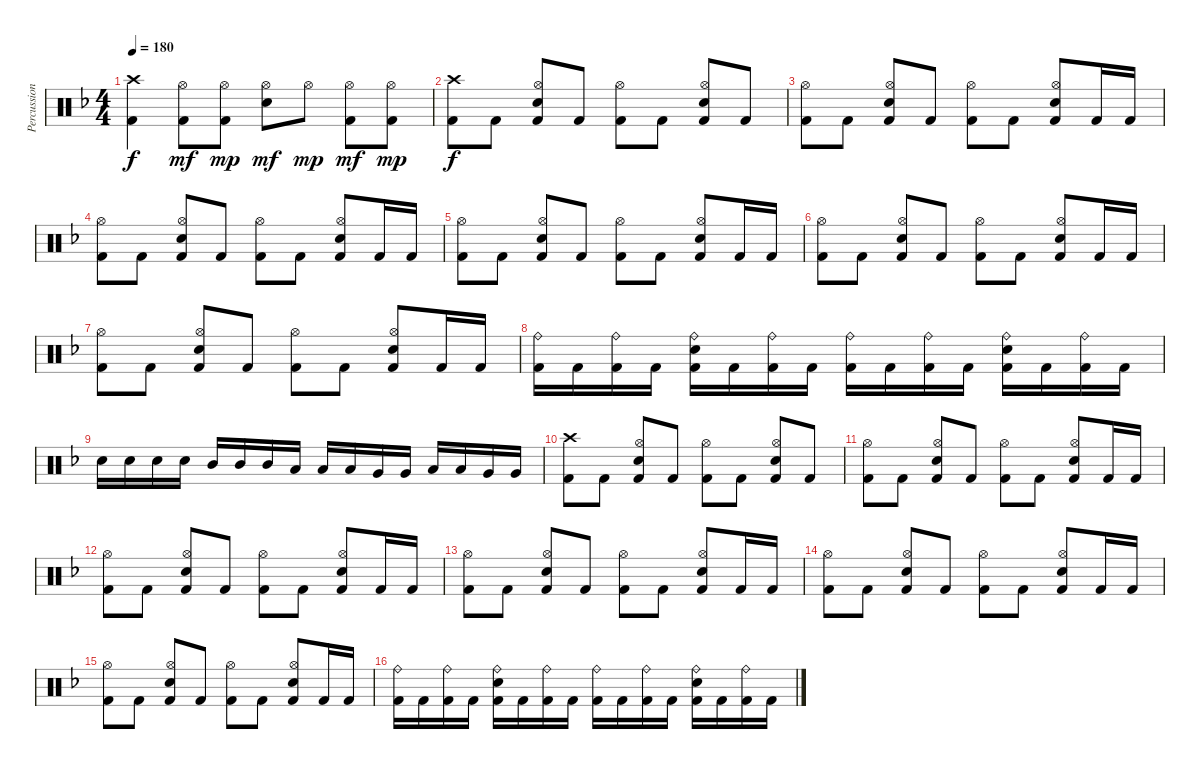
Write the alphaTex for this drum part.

\track ("Percussion" "Percussion") {instrument percussion}
\staff {score}
\articulation defaults
\ts (4 4)
\tempo 180
\clef neutral
\ks dminor
("Crash high (hit)" "Kick (hit) 2").4{dy f} ("Hi-Hat (open)" "Kick (hit) 2").8{dy mf} ("Hi-Hat (open)" "Kick (hit) 2").8{dy mp} ("Hi-Hat (open)" "Snare (hit) 2").8{dy mf} "Hi-Hat (open)".8{dy mp} ("Hi-Hat (open)" "Kick (hit) 2").8{dy mf} ("Hi-Hat (open)" "Kick (hit) 2").8{dy mp} |
("Crash high (hit)" "Kick (hit) 2").8{dy f} "Kick (hit) 2".8 ("Hi-Hat (open)" "Snare (hit) 2" "Kick (hit) 2").8 "Kick (hit) 2".8 ("Hi-Hat (open)" "Kick (hit) 2").8 "Kick (hit) 2".8 ("Hi-Hat (open)" "Snare (hit) 2" "Kick (hit) 2").8 "Kick (hit) 2".8 |
("Hi-Hat (open)" "Kick (hit) 2").8 "Kick (hit) 2".8 ("Hi-Hat (open)" "Snare (hit) 2" "Kick (hit) 2").8 "Kick (hit) 2".8 ("Hi-Hat (open)" "Kick (hit) 2").8 "Kick (hit) 2".8 ("Hi-Hat (open)" "Snare (hit) 2" "Kick (hit) 2").8 "Kick (hit) 2".16 "Kick (hit) 2".16 |
("Hi-Hat (open)" "Kick (hit) 2").8 "Kick (hit) 2".8 ("Hi-Hat (open)" "Snare (hit) 2" "Kick (hit) 2").8 "Kick (hit) 2".8 ("Hi-Hat (open)" "Kick (hit) 2").8 "Kick (hit) 2".8 ("Hi-Hat (open)" "Snare (hit) 2" "Kick (hit) 2").8 "Kick (hit) 2".16 "Kick (hit) 2".16 |
("Hi-Hat (open)" "Kick (hit) 2").8 "Kick (hit) 2".8 ("Hi-Hat (open)" "Snare (hit) 2" "Kick (hit) 2").8 "Kick (hit) 2".8 ("Hi-Hat (open)" "Kick (hit) 2").8 "Kick (hit) 2".8 ("Hi-Hat (open)" "Snare (hit) 2" "Kick (hit) 2").8 "Kick (hit) 2".16 "Kick (hit) 2".16 |
("Hi-Hat (open)" "Kick (hit) 2").8 "Kick (hit) 2".8 ("Hi-Hat (open)" "Snare (hit) 2" "Kick (hit) 2").8 "Kick (hit) 2".8 ("Hi-Hat (open)" "Kick (hit) 2").8 "Kick (hit) 2".8 ("Hi-Hat (open)" "Snare (hit) 2" "Kick (hit) 2").8 "Kick (hit) 2".16 "Kick (hit) 2".16 |
("Hi-Hat (open)" "Kick (hit) 2").8 "Kick (hit) 2".8 ("Hi-Hat (open)" "Snare (hit) 2" "Kick (hit) 2").8 "Kick (hit) 2".8 ("Hi-Hat (open)" "Kick (hit) 2").8 "Kick (hit) 2".8 ("Hi-Hat (open)" "Snare (hit) 2" "Kick (hit) 2").8 "Kick (hit) 2".16 "Kick (hit) 2".16 |
("Ride (bell)" "Kick (hit) 2").16 "Kick (hit) 2".16 ("Ride (bell)" "Kick (hit) 2").16 "Kick (hit) 2".16 ("Ride (bell)" "Snare (hit) 2" "Kick (hit) 2").16 "Kick (hit) 2".16 ("Ride (bell)" "Kick (hit) 2").16 "Kick (hit) 2".16 ("Ride (bell)" "Kick (hit) 2").16 "Kick (hit) 2".16 ("Ride (bell)" "Kick (hit) 2").16 "Kick (hit) 2".16 ("Ride (bell)" "Snare (hit) 2" "Kick (hit) 2").16 "Kick (hit) 2".16 ("Ride (bell)" "Kick (hit) 2").16 "Kick (hit) 2".16 |
"Snare (hit) 2".16 "Snare (hit) 2".16 "Snare (hit) 2".16 "Snare (hit) 2".16 "Mid Tom (hit)".16 "Mid Tom (hit)".16 "Mid Tom (hit)".16 "Low Tom (hit)".16 "Low Tom (hit)".16 "Low Tom (hit)".16 "Very Low Tom (hit)".16 "Very Low Tom (hit)".16 "Low Tom (hit)".16 "Low Tom (hit)".16 "Very Low Tom (hit)".16 "Very Low Tom (hit)".16 |
("Crash high (hit)" "Kick (hit) 2").8 "Kick (hit) 2".8 ("Hi-Hat (open)" "Snare (hit) 2" "Kick (hit) 2").8 "Kick (hit) 2".8 ("Hi-Hat (open)" "Kick (hit) 2").8 "Kick (hit) 2".8 ("Hi-Hat (open)" "Snare (hit) 2" "Kick (hit) 2").8 "Kick (hit) 2".8 |
("Hi-Hat (open)" "Kick (hit) 2").8 "Kick (hit) 2".8 ("Hi-Hat (open)" "Snare (hit) 2" "Kick (hit) 2").8 "Kick (hit) 2".8 ("Hi-Hat (open)" "Kick (hit) 2").8 "Kick (hit) 2".8 ("Hi-Hat (open)" "Snare (hit) 2" "Kick (hit) 2").8 "Kick (hit) 2".16 "Kick (hit) 2".16 |
("Hi-Hat (open)" "Kick (hit) 2").8 "Kick (hit) 2".8 ("Hi-Hat (open)" "Snare (hit) 2" "Kick (hit) 2").8 "Kick (hit) 2".8 ("Hi-Hat (open)" "Kick (hit) 2").8 "Kick (hit) 2".8 ("Hi-Hat (open)" "Snare (hit) 2" "Kick (hit) 2").8 "Kick (hit) 2".16 "Kick (hit) 2".16 |
("Hi-Hat (open)" "Kick (hit) 2").8 "Kick (hit) 2".8 ("Hi-Hat (open)" "Snare (hit) 2" "Kick (hit) 2").8 "Kick (hit) 2".8 ("Hi-Hat (open)" "Kick (hit) 2").8 "Kick (hit) 2".8 ("Hi-Hat (open)" "Snare (hit) 2" "Kick (hit) 2").8 "Kick (hit) 2".16 "Kick (hit) 2".16 |
("Hi-Hat (open)" "Kick (hit) 2").8 "Kick (hit) 2".8 ("Hi-Hat (open)" "Snare (hit) 2" "Kick (hit) 2").8 "Kick (hit) 2".8 ("Hi-Hat (open)" "Kick (hit) 2").8 "Kick (hit) 2".8 ("Hi-Hat (open)" "Snare (hit) 2" "Kick (hit) 2").8 "Kick (hit) 2".16 "Kick (hit) 2".16 |
("Hi-Hat (open)" "Kick (hit) 2").8 "Kick (hit) 2".8 ("Hi-Hat (open)" "Snare (hit) 2" "Kick (hit) 2").8 "Kick (hit) 2".8 ("Hi-Hat (open)" "Kick (hit) 2").8 "Kick (hit) 2".8 ("Hi-Hat (open)" "Snare (hit) 2" "Kick (hit) 2").8 "Kick (hit) 2".16 "Kick (hit) 2".16 |
("Ride (bell)" "Kick (hit) 2").16 "Kick (hit) 2".16 ("Ride (bell)" "Kick (hit) 2").16 "Kick (hit) 2".16 ("Ride (bell)" "Snare (hit) 2" "Kick (hit) 2").16 "Kick (hit) 2".16 ("Ride (bell)" "Kick (hit) 2").16 "Kick (hit) 2".16 ("Ride (bell)" "Kick (hit) 2").16 "Kick (hit) 2".16 ("Ride (bell)" "Kick (hit) 2").16 "Kick (hit) 2".16 ("Ride (bell)" "Snare (hit) 2" "Kick (hit) 2").16 "Kick (hit) 2".16 ("Ride (bell)" "Kick (hit) 2").16 "Kick (hit) 2".16
